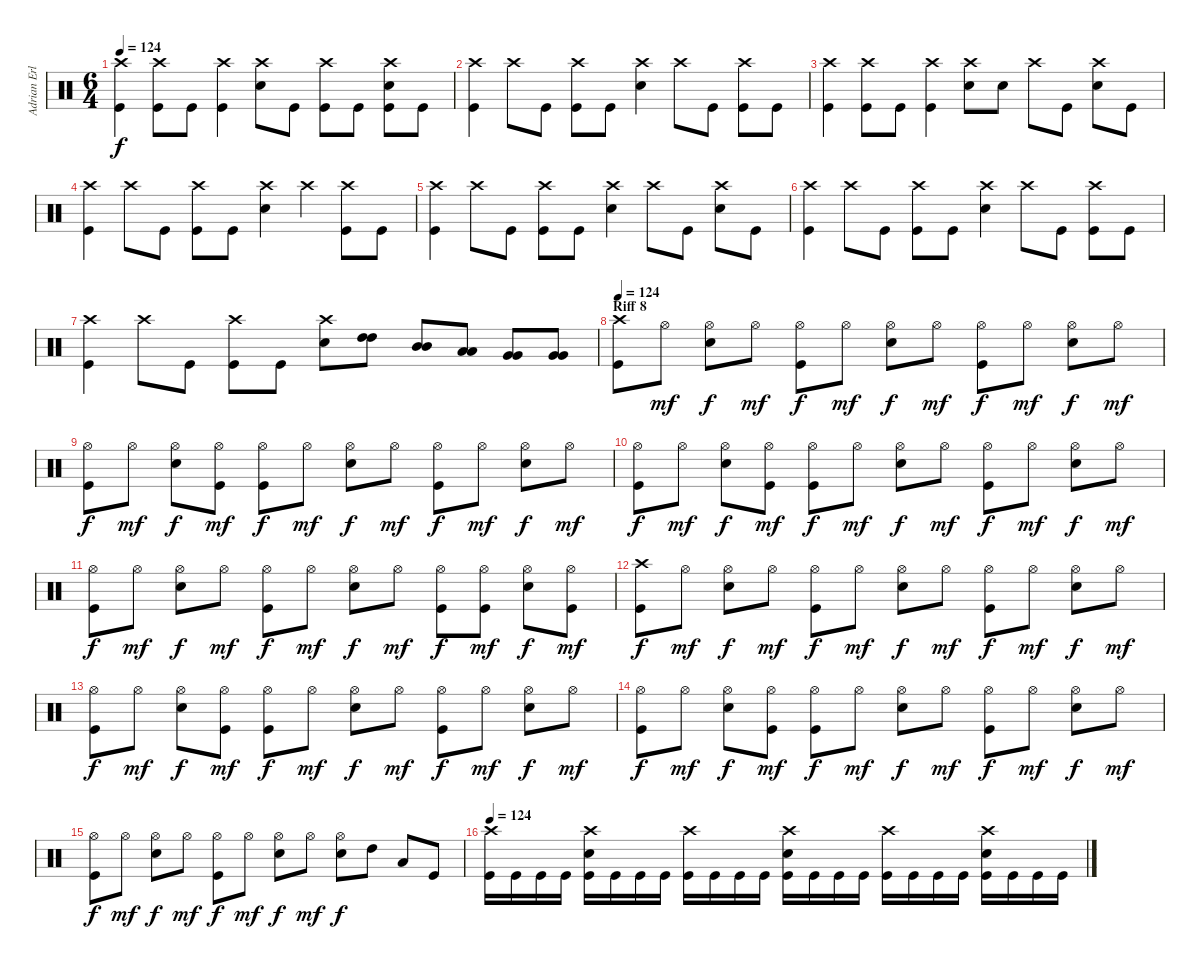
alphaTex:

\track ("Adrian Erlandsson (Norseman of the Apoca" "Adrian Erl") {instrument percussion}
\staff {score}
\articulation defaults
\ts (6 4)
\tempo 124
\clef neutral
\ks c
("Crash high (hit)" "Kick (hit)").4{dy f} ("Crash high (hit)" "Kick (hit)").8 "Kick (hit)".8 ("Crash high (hit)" "Kick (hit)").4 ("Crash high (hit)" "Electric Snare (hit)").8 "Kick (hit)".8 ("Crash high (hit)" "Kick (hit)").8 "Kick (hit)".8 ("Crash high (hit)" "Electric Snare (hit)" "Kick (hit)").8 "Kick (hit)".8 |
("Crash high (hit)" "Kick (hit)").4 "Crash high (hit)".8 "Kick (hit)".8 ("Crash high (hit)" "Kick (hit)").8 "Kick (hit)".8 ("Crash high (hit)" "Electric Snare (hit)").4 "Crash high (hit)".8 "Kick (hit)".8 ("Crash high (hit)" "Kick (hit)").8 "Kick (hit)".8 |
("Crash high (hit)" "Kick (hit)").4 ("Crash high (hit)" "Kick (hit)").8 "Kick (hit)".8 ("Crash high (hit)" "Kick (hit)").4 ("Crash high (hit)" "Electric Snare (hit)").8 "Electric Snare (hit)".8 "Crash high (hit)".8 "Kick (hit)".8 ("Crash high (hit)" "Electric Snare (hit)").8 "Kick (hit)".8 |
("Crash high (hit)" "Kick (hit)").4 "Crash high (hit)".8 "Kick (hit)".8 ("Crash high (hit)" "Kick (hit)").8 "Kick (hit)".8 ("Crash high (hit)" "Electric Snare (hit)").4 "Crash high (hit)".4 ("Crash high (hit)" "Kick (hit)").8 "Kick (hit)".8 |
("Crash high (hit)" "Kick (hit)").4 "Crash high (hit)".8 "Kick (hit)".8 ("Crash high (hit)" "Kick (hit)").8 "Kick (hit)".8 ("Crash high (hit)" "Electric Snare (hit)").4 "Crash high (hit)".8 "Kick (hit)".8 ("Crash high (hit)" "Electric Snare (hit)").8 "Kick (hit)".8 |
("Crash high (hit)" "Kick (hit)").4 "Crash high (hit)".8 "Kick (hit)".8 ("Crash high (hit)" "Kick (hit)").8 "Kick (hit)".8 ("Crash high (hit)" "Electric Snare (hit)").4 "Crash high (hit)".8 "Kick (hit)".8 ("Crash high (hit)" "Kick (hit)").8 "Kick (hit)".8 |
("Crash high (hit)" "Kick (hit)").4 "Crash high (hit)".8 "Kick (hit)".8 ("Crash high (hit)" "Kick (hit)").8 "Kick (hit)".8 ("Crash high (hit)" "Electric Snare (hit)").8 ("High Tom (hit)" "High Tom (hit)").8{bu 120} ("Mid Tom (hit)" "Mid Tom (hit)").8{bu 120} ("Low Tom (hit)" "Low Tom (hit)").8{bu 120} ("Very Low Tom (hit)" "Very Low Tom (hit)").8{bu 120} ("Very Low Tom (hit)" "Very Low Tom (hit)").8{bu 120} |
\section ("" "Riff 8")
\tempo 124
("Crash high (hit)" "Kick (hit)").8 "Hi-Hat (open)".8{dy mf} ("Hi-Hat (open)" "Electric Snare (hit)").8{dy f} "Hi-Hat (open)".8{dy mf} ("Hi-Hat (open)" "Kick (hit)").8{dy f} "Hi-Hat (open)".8{dy mf} ("Hi-Hat (open)" "Electric Snare (hit)").8{dy f} "Hi-Hat (open)".8{dy mf} ("Hi-Hat (open)" "Kick (hit)").8{dy f} "Hi-Hat (open)".8{dy mf} ("Hi-Hat (open)" "Electric Snare (hit)").8{dy f} "Hi-Hat (open)".8{dy mf} |
("Hi-Hat (open)" "Kick (hit)").8{dy f} "Hi-Hat (open)".8{dy mf} ("Hi-Hat (open)" "Electric Snare (hit)").8{dy f} ("Hi-Hat (open)" "Kick (hit)").8{dy mf} ("Hi-Hat (open)" "Kick (hit)").8{dy f} "Hi-Hat (open)".8{dy mf} ("Hi-Hat (open)" "Electric Snare (hit)").8{dy f} "Hi-Hat (open)".8{dy mf} ("Hi-Hat (open)" "Kick (hit)").8{dy f} "Hi-Hat (open)".8{dy mf} ("Hi-Hat (open)" "Electric Snare (hit)").8{dy f} "Hi-Hat (open)".8{dy mf} |
("Hi-Hat (open)" "Kick (hit)").8{dy f} "Hi-Hat (open)".8{dy mf} ("Hi-Hat (open)" "Electric Snare (hit)").8{dy f} ("Hi-Hat (open)" "Kick (hit)").8{dy mf} ("Hi-Hat (open)" "Kick (hit)").8{dy f} "Hi-Hat (open)".8{dy mf} ("Hi-Hat (open)" "Electric Snare (hit)").8{dy f} "Hi-Hat (open)".8{dy mf} ("Hi-Hat (open)" "Kick (hit)").8{dy f} "Hi-Hat (open)".8{dy mf} ("Hi-Hat (open)" "Electric Snare (hit)").8{dy f} "Hi-Hat (open)".8{dy mf} |
("Hi-Hat (open)" "Kick (hit)").8{dy f} "Hi-Hat (open)".8{dy mf} ("Hi-Hat (open)" "Electric Snare (hit)").8{dy f} "Hi-Hat (open)".8{dy mf} ("Hi-Hat (open)" "Kick (hit)").8{dy f} "Hi-Hat (open)".8{dy mf} ("Hi-Hat (open)" "Electric Snare (hit)").8{dy f} "Hi-Hat (open)".8{dy mf} ("Hi-Hat (open)" "Kick (hit)").8{dy f} ("Hi-Hat (open)" "Kick (hit)").8{dy mf} ("Hi-Hat (open)" "Electric Snare (hit)").8{dy f} ("Hi-Hat (open)" "Kick (hit)").8{dy mf} |
("Crash high (hit)" "Kick (hit)").8{dy f} "Hi-Hat (open)".8{dy mf} ("Hi-Hat (open)" "Electric Snare (hit)").8{dy f} "Hi-Hat (open)".8{dy mf} ("Hi-Hat (open)" "Kick (hit)").8{dy f} "Hi-Hat (open)".8{dy mf} ("Hi-Hat (open)" "Electric Snare (hit)").8{dy f} "Hi-Hat (open)".8{dy mf} ("Hi-Hat (open)" "Kick (hit)").8{dy f} "Hi-Hat (open)".8{dy mf} ("Hi-Hat (open)" "Electric Snare (hit)").8{dy f} "Hi-Hat (open)".8{dy mf} |
("Hi-Hat (open)" "Kick (hit)").8{dy f} "Hi-Hat (open)".8{dy mf} ("Hi-Hat (open)" "Electric Snare (hit)").8{dy f} ("Hi-Hat (open)" "Kick (hit)").8{dy mf} ("Hi-Hat (open)" "Kick (hit)").8{dy f} "Hi-Hat (open)".8{dy mf} ("Hi-Hat (open)" "Electric Snare (hit)").8{dy f} "Hi-Hat (open)".8{dy mf} ("Hi-Hat (open)" "Kick (hit)").8{dy f} "Hi-Hat (open)".8{dy mf} ("Hi-Hat (open)" "Electric Snare (hit)").8{dy f} "Hi-Hat (open)".8{dy mf} |
("Hi-Hat (open)" "Kick (hit)").8{dy f} "Hi-Hat (open)".8{dy mf} ("Hi-Hat (open)" "Electric Snare (hit)").8{dy f} ("Hi-Hat (open)" "Kick (hit)").8{dy mf} ("Hi-Hat (open)" "Kick (hit)").8{dy f} "Hi-Hat (open)".8{dy mf} ("Hi-Hat (open)" "Electric Snare (hit)").8{dy f} "Hi-Hat (open)".8{dy mf} ("Hi-Hat (open)" "Kick (hit)").8{dy f} "Hi-Hat (open)".8{dy mf} ("Hi-Hat (open)" "Electric Snare (hit)").8{dy f} "Hi-Hat (open)".8{dy mf} |
("Hi-Hat (open)" "Kick (hit)").8{dy f} "Hi-Hat (open)".8{dy mf} ("Hi-Hat (open)" "Electric Snare (hit)").8{dy f} "Hi-Hat (open)".8{dy mf} ("Hi-Hat (open)" "Kick (hit)").8{dy f} "Hi-Hat (open)".8{dy mf} ("Hi-Hat (open)" "Electric Snare (hit)").8{dy f} "Hi-Hat (open)".8{dy mf} ("Hi-Hat (open)" "Electric Snare (hit)").8{dy f} "High Tom (hit)".8 "Low Tom (hit)".8 "Kick (hit)".8 |
\tempo 124
("Crash high (hit)" "Kick (hit)").16 "Kick (hit)".16 "Kick (hit)".16 "Kick (hit)".16 ("Crash high (hit)" "Electric Snare (hit)" "Kick (hit)").16 "Kick (hit)".16 "Kick (hit)".16 "Kick (hit)".16 ("Crash high (hit)" "Kick (hit)").16 "Kick (hit)".16 "Kick (hit)".16 "Kick (hit)".16 ("Crash high (hit)" "Electric Snare (hit)" "Kick (hit)").16 "Kick (hit)".16 "Kick (hit)".16 "Kick (hit)".16 ("Crash high (hit)" "Kick (hit)").16 "Kick (hit)".16 "Kick (hit)".16 "Kick (hit)".16 ("Crash high (hit)" "Electric Snare (hit)" "Kick (hit)").16 "Kick (hit)".16 "Kick (hit)".16 "Kick (hit)".16
